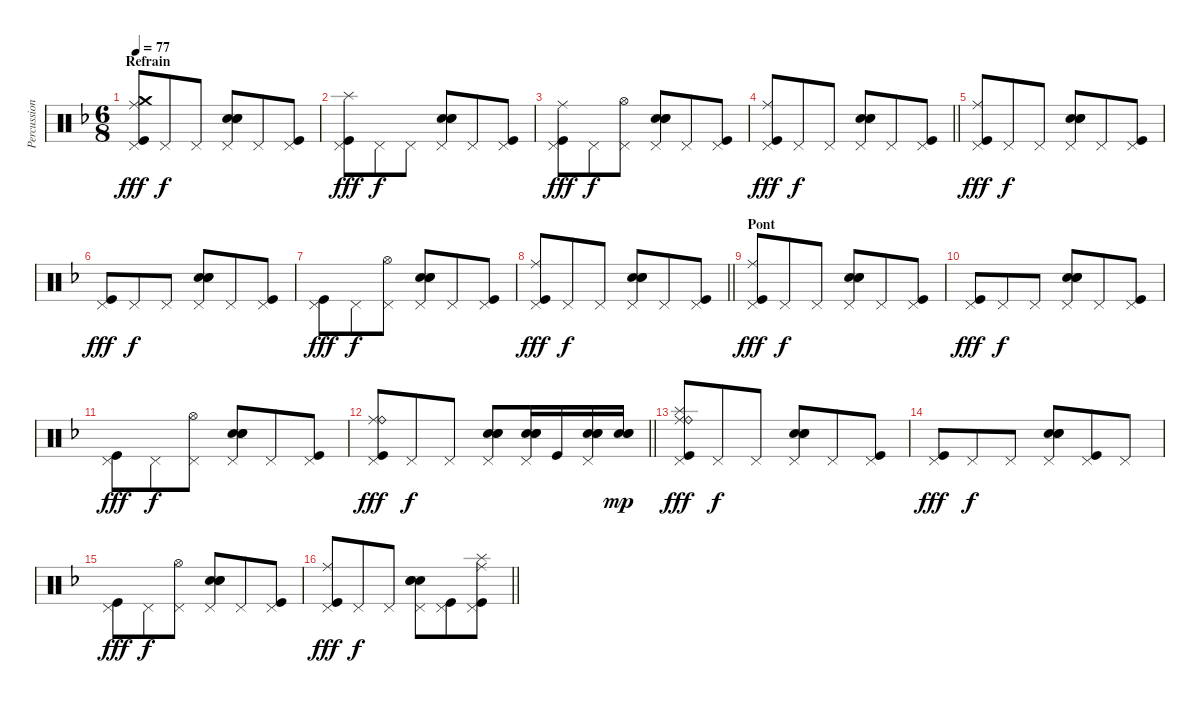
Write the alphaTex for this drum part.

\track ("Percussions" "Percussion") {instrument percussion}
\staff {score}
\articulation defaults
\ts (6 8)
\section ("" "Refrain")
\tempo 77
\clef neutral
\ks f
("Pedal Hi-Hat (hit)" "Ride (middle)" "Crash medium (hit)" "Kick (hit)").8{dy fff} "Pedal Hi-Hat (hit)".8{dy f} "Pedal Hi-Hat (hit)".8 ("Pedal Hi-Hat (hit)" "Metronome (bell)" "Electric Snare (hit)" "Snare (hit) 2").8 "Pedal Hi-Hat (hit)".8 ("Pedal Hi-Hat (hit)" "Kick (hit)").8 |
("Pedal Hi-Hat (hit)" "Splash (hit)" "Kick (hit)").8{dy fff} "Pedal Hi-Hat (hit)".8{dy f} "Pedal Hi-Hat (hit)".8 ("Pedal Hi-Hat (hit)" "Metronome (bell)" "Electric Snare (hit)" "Snare (hit) 2").8 "Pedal Hi-Hat (hit)".8 ("Pedal Hi-Hat (hit)" "Kick (hit)").8 |
("Pedal Hi-Hat (hit)" "Ride (middle)" "Kick (hit)").8{dy fff} "Pedal Hi-Hat (hit)".8{dy f} ("Pedal Hi-Hat (hit)" "Hi-Hat (open)").8 ("Pedal Hi-Hat (hit)" "Metronome (bell)" "Electric Snare (hit)" "Snare (hit) 2").8 "Pedal Hi-Hat (hit)".8 ("Pedal Hi-Hat (hit)" "Kick (hit)").8 |
\barLineRight lightlight
("Pedal Hi-Hat (hit)" "Ride (middle)" "Kick (hit)").8{dy fff} "Pedal Hi-Hat (hit)".8{dy f} "Pedal Hi-Hat (hit)".8 ("Pedal Hi-Hat (hit)" "Metronome (bell)" "Electric Snare (hit)" "Snare (hit) 2").8 "Pedal Hi-Hat (hit)".8 ("Pedal Hi-Hat (hit)" "Kick (hit)").8 |
("Pedal Hi-Hat (hit)" "Ride (middle)" "Kick (hit)").8{dy fff} "Pedal Hi-Hat (hit)".8{dy f} "Pedal Hi-Hat (hit)".8 ("Pedal Hi-Hat (hit)" "Metronome (bell)" "Electric Snare (hit)" "Snare (hit) 2").8 "Pedal Hi-Hat (hit)".8 ("Pedal Hi-Hat (hit)" "Kick (hit)").8 |
("Pedal Hi-Hat (hit)" "Kick (hit)").8{dy fff} "Pedal Hi-Hat (hit)".8{dy f} "Pedal Hi-Hat (hit)".8 ("Pedal Hi-Hat (hit)" "Metronome (bell)" "Electric Snare (hit)" "Snare (hit) 2").8 "Pedal Hi-Hat (hit)".8 ("Pedal Hi-Hat (hit)" "Kick (hit)").8 |
("Pedal Hi-Hat (hit)" "Kick (hit)").8{dy fff} "Pedal Hi-Hat (hit)".8{dy f} ("Pedal Hi-Hat (hit)" "Hi-Hat (open)").8 ("Pedal Hi-Hat (hit)" "Metronome (bell)" "Electric Snare (hit)" "Snare (hit) 2").8 "Pedal Hi-Hat (hit)".8 ("Pedal Hi-Hat (hit)" "Kick (hit)").8 |
\barLineRight lightlight
("Pedal Hi-Hat (hit)" "Ride (middle)" "Kick (hit)").8{dy fff} "Pedal Hi-Hat (hit)".8{dy f} "Pedal Hi-Hat (hit)".8 ("Pedal Hi-Hat (hit)" "Metronome (bell)" "Electric Snare (hit)" "Snare (hit) 2").8 "Pedal Hi-Hat (hit)".8 ("Pedal Hi-Hat (hit)" "Kick (hit)").8 |
\section ("" "Pont")
("Pedal Hi-Hat (hit)" "Ride (middle)" "Kick (hit)").8{dy fff} "Pedal Hi-Hat (hit)".8{dy f} "Pedal Hi-Hat (hit)".8 ("Pedal Hi-Hat (hit)" "Metronome (bell)" "Electric Snare (hit)" "Snare (hit) 2").8 "Pedal Hi-Hat (hit)".8 ("Pedal Hi-Hat (hit)" "Kick (hit)").8 |
("Pedal Hi-Hat (hit)" "Kick (hit)").8{dy fff} "Pedal Hi-Hat (hit)".8{dy f} "Pedal Hi-Hat (hit)".8 ("Pedal Hi-Hat (hit)" "Metronome (bell)" "Electric Snare (hit)" "Snare (hit) 2").8 "Pedal Hi-Hat (hit)".8 ("Pedal Hi-Hat (hit)" "Kick (hit)").8 |
("Pedal Hi-Hat (hit)" "Kick (hit)").8{dy fff} "Pedal Hi-Hat (hit)".8{dy f} ("Pedal Hi-Hat (hit)" "Hi-Hat (open)").8 ("Pedal Hi-Hat (hit)" "Metronome (bell)" "Electric Snare (hit)" "Snare (hit) 2").8 "Pedal Hi-Hat (hit)".8 ("Pedal Hi-Hat (hit)" "Kick (hit)").8 |
\barLineRight lightlight
("Pedal Hi-Hat (hit)" "Ride (middle)" "Ride (bell)" "Kick (hit)").8{dy fff} "Pedal Hi-Hat (hit)".8{dy f} "Pedal Hi-Hat (hit)".8 ("Pedal Hi-Hat (hit)" "Metronome (bell)" "Electric Snare (hit)" "Snare (hit) 2").8 ("Pedal Hi-Hat (hit)" "Metronome (bell)" "Electric Snare (hit)" "Snare (hit) 2").16 "Kick (hit)".16 ("Pedal Hi-Hat (hit)" "Metronome (bell)" "Electric Snare (hit)" "Snare (hit) 2").16 ("Metronome (bell)" "Electric Snare (hit)" "Snare (hit) 2").16{dy mp} |
("Pedal Hi-Hat (hit)" "Ride (middle)" "Splash (hit)" "Ride (bell)" "Kick (hit)").8{dy fff} "Pedal Hi-Hat (hit)".8{dy f} "Pedal Hi-Hat (hit)".8 ("Pedal Hi-Hat (hit)" "Metronome (bell)" "Electric Snare (hit)" "Snare (hit) 2").8 "Pedal Hi-Hat (hit)".8 ("Pedal Hi-Hat (hit)" "Kick (hit)").8 |
("Pedal Hi-Hat (hit)" "Kick (hit)").8{dy fff} "Pedal Hi-Hat (hit)".8{dy f} "Pedal Hi-Hat (hit)".8 ("Pedal Hi-Hat (hit)" "Metronome (bell)" "Electric Snare (hit)" "Snare (hit) 2").8 ("Pedal Hi-Hat (hit)" "Kick (hit)").8 "Pedal Hi-Hat (hit)".8 |
("Pedal Hi-Hat (hit)" "Kick (hit)").8{dy fff} "Pedal Hi-Hat (hit)".8{dy f} ("Pedal Hi-Hat (hit)" "Hi-Hat (open)").8 ("Pedal Hi-Hat (hit)" "Metronome (bell)" "Electric Snare (hit)" "Snare (hit) 2").8 "Pedal Hi-Hat (hit)".8 ("Pedal Hi-Hat (hit)" "Kick (hit)").8 |
\barLineRight lightlight
("Pedal Hi-Hat (hit)" "Ride (middle)" "Kick (hit)").8{dy fff} "Pedal Hi-Hat (hit)".8{dy f} "Pedal Hi-Hat (hit)".8 ("Pedal Hi-Hat (hit)" "Metronome (bell)" "Electric Snare (hit)" "Snare (hit) 2").8 ("Pedal Hi-Hat (hit)" "Kick (hit)").8 ("Pedal Hi-Hat (hit)" "Splash (hit)" "Ride (middle)" "Kick (hit)").8
